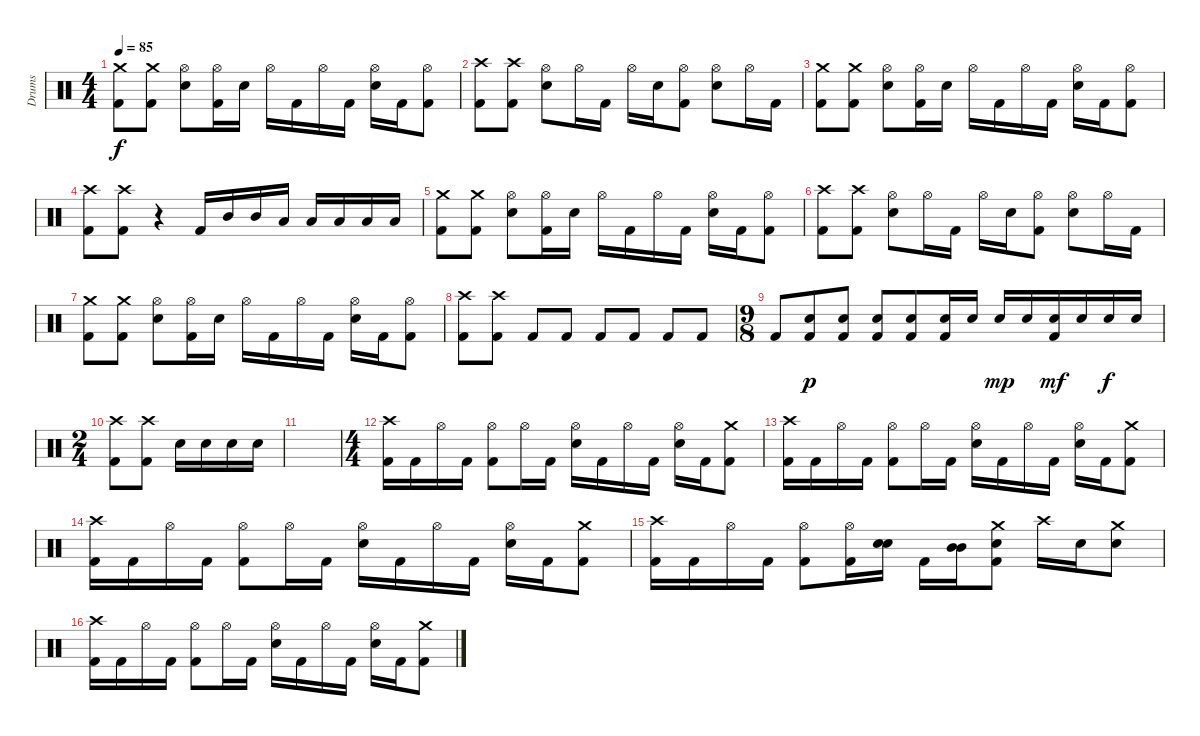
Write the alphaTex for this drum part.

\track ("Drums" "Drums") {instrument percussion}
\staff {score}
\articulation defaults
\ts (4 4)
\tempo 85
\clef neutral
\ks c
("Crash medium (hit)" "Kick (hit) 2").8{dy f} ("Crash medium (hit)" "Kick (hit) 2").8 ("Hi-Hat (open)" "Snare (hit) 2").8 ("Hi-Hat (open)" "Kick (hit) 2").16 "Snare (hit) 2".16 "Hi-Hat (open)".16 "Kick (hit) 2".16 "Hi-Hat (open)".16 "Kick (hit) 2".16 ("Hi-Hat (open)" "Snare (hit) 2").16 "Kick (hit) 2".16 ("Hi-Hat (open)" "Kick (hit) 2").8 |
("Crash high (hit)" "Kick (hit) 2").8 ("Crash high (hit)" "Kick (hit) 2").8 ("Hi-Hat (open)" "Snare (hit) 2").8 "Hi-Hat (open)".16 "Kick (hit) 2".16 "Hi-Hat (open)".16 "Snare (hit) 2".16 ("Hi-Hat (open)" "Kick (hit) 2").8 ("Hi-Hat (open)" "Snare (hit) 2").8 "Hi-Hat (open)".16 "Kick (hit) 2".16 |
("Crash medium (hit)" "Kick (hit) 2").8 ("Crash medium (hit)" "Kick (hit) 2").8 ("Hi-Hat (open)" "Snare (hit) 2").8 ("Hi-Hat (open)" "Kick (hit) 2").16 "Snare (hit) 2".16 "Hi-Hat (open)".16 "Kick (hit) 2".16 "Hi-Hat (open)".16 "Kick (hit) 2".16 ("Hi-Hat (open)" "Snare (hit) 2").16 "Kick (hit) 2".16 ("Hi-Hat (open)" "Kick (hit) 2").8 |
("Crash high (hit)" "Kick (hit) 2").8 ("Crash high (hit)" "Kick (hit) 2").8 r.4 "Kick (hit) 2".16 "Mid Tom (hit)".16 "Mid Tom (hit)".16 "Low Tom (hit)".16 "Low Tom (hit)".16 "Low Floor Tom (hit)".16 "Low Floor Tom (hit)".16 "Low Floor Tom (hit)".16 |
("Crash medium (hit)" "Kick (hit) 2").8 ("Crash medium (hit)" "Kick (hit) 2").8 ("Hi-Hat (open)" "Snare (hit) 2").8 ("Hi-Hat (open)" "Kick (hit) 2").16 "Snare (hit) 2".16 "Hi-Hat (open)".16 "Kick (hit) 2".16 "Hi-Hat (open)".16 "Kick (hit) 2".16 ("Hi-Hat (open)" "Snare (hit) 2").16 "Kick (hit) 2".16 ("Hi-Hat (open)" "Kick (hit) 2").8 |
("Crash high (hit)" "Kick (hit) 2").8 ("Crash high (hit)" "Kick (hit) 2").8 ("Hi-Hat (open)" "Snare (hit) 2").8 "Hi-Hat (open)".16 "Kick (hit) 2".16 "Hi-Hat (open)".16 "Snare (hit) 2".16 ("Hi-Hat (open)" "Kick (hit) 2").8 ("Hi-Hat (open)" "Snare (hit) 2").8 "Hi-Hat (open)".16 "Kick (hit) 2".16 |
("Crash medium (hit)" "Kick (hit) 2").8 ("Crash medium (hit)" "Kick (hit) 2").8 ("Hi-Hat (open)" "Snare (hit) 2").8 ("Hi-Hat (open)" "Kick (hit) 2").16 "Snare (hit) 2".16 "Hi-Hat (open)".16 "Kick (hit) 2".16 "Hi-Hat (open)".16 "Kick (hit) 2".16 ("Hi-Hat (open)" "Snare (hit) 2").16 "Kick (hit) 2".16 ("Hi-Hat (open)" "Kick (hit) 2").8 |
("Crash high (hit)" "Kick (hit) 2").8 ("Crash high (hit)" "Kick (hit) 2").8 "Kick (hit) 2".8 "Kick (hit) 2".8 "Kick (hit) 2".8 "Kick (hit) 2".8 "Kick (hit) 2".8 "Kick (hit) 2".8 |
\ts (9 8)
"Kick (hit) 2".8 ("Snare (hit) 2" "Kick (hit) 2").8{dy p} ("Snare (hit) 2" "Kick (hit) 2").8 ("Snare (hit) 2" "Kick (hit) 2").8 ("Snare (hit) 2" "Kick (hit) 2").8 ("Snare (hit) 2" "Kick (hit) 2").16 "Snare (hit) 2".16 "Snare (hit) 2".16{dy mp} "Snare (hit) 2".16 ("Snare (hit) 2" "Kick (hit) 2").16{dy mf} "Snare (hit) 2".16 "Snare (hit) 2".16{dy f} "Snare (hit) 2".16 |
\ts (2 4)
("Crash high (hit)" "Kick (hit) 2").8 ("Crash high (hit)" "Kick (hit) 2").8 "Snare (hit) 2".16 "Snare (hit) 2".16 "Snare (hit) 2".16 "Snare (hit) 2".16 |
|
\ts (4 4)
("Crash high (hit)" "Kick (hit) 2").16 "Kick (hit) 2".16 "Hi-Hat (open)".16 "Kick (hit) 2".16 ("Hi-Hat (open)" "Kick (hit) 2").8 "Hi-Hat (open)".16 "Kick (hit) 2".16 ("Hi-Hat (open)" "Snare (hit) 2").16 "Kick (hit) 2".16 "Hi-Hat (open)".16 "Kick (hit) 2".16 ("Hi-Hat (open)" "Snare (hit) 2").16 "Kick (hit) 2".16 ("Crash medium (hit)" "Kick (hit) 2").8 |
("Crash high (hit)" "Kick (hit) 2").16 "Kick (hit) 2".16 "Hi-Hat (open)".16 "Kick (hit) 2".16 ("Hi-Hat (open)" "Kick (hit) 2").8 "Hi-Hat (open)".16 "Kick (hit) 2".16 ("Hi-Hat (open)" "Snare (hit) 2").16 "Kick (hit) 2".16 "Hi-Hat (open)".16 "Kick (hit) 2".16 ("Hi-Hat (open)" "Snare (hit) 2").16 "Kick (hit) 2".16 ("Crash medium (hit)" "Kick (hit) 2").8 |
("Crash high (hit)" "Kick (hit) 2").16 "Kick (hit) 2".16 "Hi-Hat (open)".16 "Kick (hit) 2".16 ("Hi-Hat (open)" "Kick (hit) 2").8 "Hi-Hat (open)".16 "Kick (hit) 2".16 ("Hi-Hat (open)" "Snare (hit) 2").16 "Kick (hit) 2".16 "Hi-Hat (open)".16 "Kick (hit) 2".16 ("Hi-Hat (open)" "Snare (hit) 2").16 "Kick (hit) 2".16 ("Crash medium (hit)" "Kick (hit) 2").8 |
("Crash high (hit)" "Kick (hit) 2").16 "Kick (hit) 2".16 "Hi-Hat (open)".16 "Kick (hit) 2".16 ("Hi-Hat (open)" "Kick (hit) 2").8 ("Hi-Hat (open)" "Kick (hit) 2").16 ("Snare (hit) 2" "Snare (hit) 2").16{bd 240} "Kick (hit) 2".16 ("Mid Tom (hit)" "Mid Tom (hit)").16{bd 240} ("Crash medium (hit)" "Snare (hit) 2" "Kick (hit) 2").8 "Crash high (hit)".16 "Snare (hit) 2".16 ("Crash medium (hit)" "Snare (hit) 2").8 |
("Crash high (hit)" "Kick (hit) 2").16 "Kick (hit) 2".16 "Hi-Hat (open)".16 "Kick (hit) 2".16 ("Hi-Hat (open)" "Kick (hit) 2").8 "Hi-Hat (open)".16 "Kick (hit) 2".16 ("Hi-Hat (open)" "Snare (hit) 2").16 "Kick (hit) 2".16 "Hi-Hat (open)".16 "Kick (hit) 2".16 ("Hi-Hat (open)" "Snare (hit) 2").16 "Kick (hit) 2".16 ("Crash medium (hit)" "Kick (hit) 2").8
